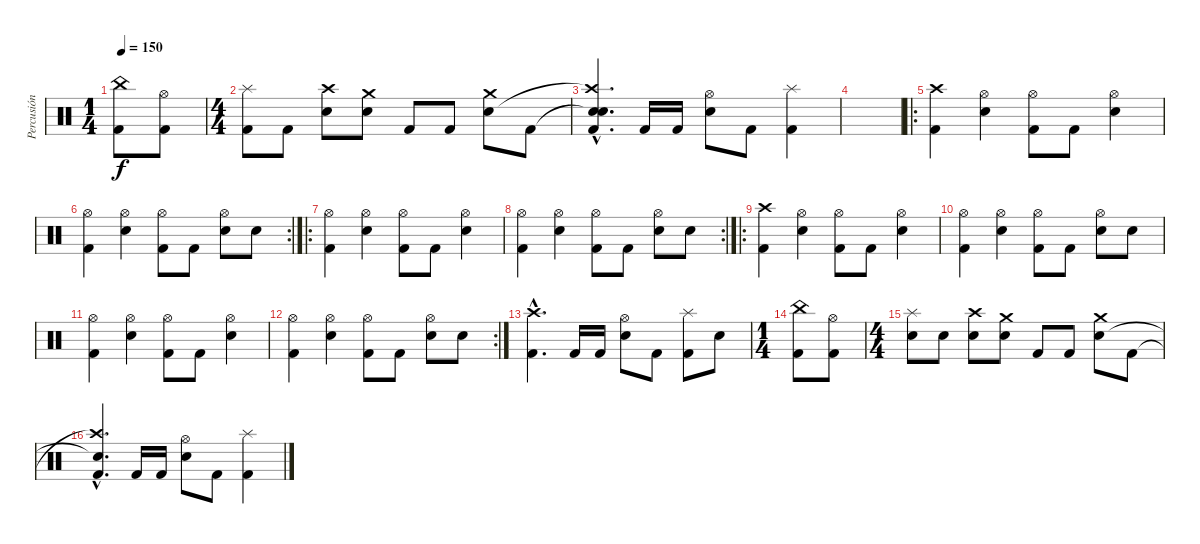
\track ("Percusión" "Percusión") {instrument percussion}
\staff {score}
\articulation defaults
\ts (1 4)
\tempo 150
\clef neutral
\ks c
("China (hit)" "Kick (hit) 2").8{dy f} ("Hi-Hat (open)" "Kick (hit) 2").8 |
\ts (4 4)
("Splash (hit)" "Kick (hit) 2").8 "Kick (hit) 2".8 ("Crash high (hit)" "Electric Snare (hit)").8 ("Crash medium (hit)" "Electric Snare (hit)").8 "Kick (hit) 2".8 "Kick (hit) 2".8 ("Crash medium (hit)" "Electric Snare (hit)").8 "Kick (hit) 2".8 |
("Snare (hit)"{hac t} "Crash high (hit)"{hac t} "Snare (hit)"{hac t} "Kick (hit) 2"{hac t}).4{d} "Kick (hit) 2".16 "Kick (hit) 2".16 ("Hi-Hat (open)" "Electric Snare (hit)").8 "Kick (hit) 2".8 ("Splash (hit)" "Kick (hit) 2").4 |
|
\ro
("Crash high (hit)" "Kick (hit) 2").4 ("Hi-Hat (open)" "Electric Snare (hit)").4 ("Hi-Hat (open)" "Kick (hit) 2").8 "Kick (hit) 2".8 ("Hi-Hat (open)" "Electric Snare (hit)").4 |
\rc 2
("Hi-Hat (open)" "Kick (hit) 2").4 ("Hi-Hat (open)" "Electric Snare (hit)").4 ("Hi-Hat (open)" "Kick (hit) 2").8 "Kick (hit) 2".8 ("Hi-Hat (open)" "Electric Snare (hit)").8 "Electric Snare (hit)".8 |
\ro
("Hi-Hat (open)" "Kick (hit) 2").4 ("Hi-Hat (open)" "Electric Snare (hit)").4 ("Hi-Hat (open)" "Kick (hit) 2").8 "Kick (hit) 2".8 ("Hi-Hat (open)" "Electric Snare (hit)").4 |
\rc 2
("Hi-Hat (open)" "Kick (hit) 2").4 ("Hi-Hat (open)" "Electric Snare (hit)").4 ("Hi-Hat (open)" "Kick (hit) 2").8 "Kick (hit) 2".8 ("Hi-Hat (open)" "Electric Snare (hit)").8 "Electric Snare (hit)".8 |
\ro
("Crash high (hit)" "Kick (hit) 2").4 ("Hi-Hat (open)" "Electric Snare (hit)").4 ("Hi-Hat (open)" "Kick (hit) 2").8 "Kick (hit) 2".8 ("Hi-Hat (open)" "Electric Snare (hit)").4 |
("Hi-Hat (open)" "Kick (hit) 2").4 ("Hi-Hat (open)" "Electric Snare (hit)").4 ("Hi-Hat (open)" "Kick (hit) 2").8 "Kick (hit) 2".8 ("Hi-Hat (open)" "Electric Snare (hit)").8 "Electric Snare (hit)".8 |
("Hi-Hat (open)" "Kick (hit) 2").4 ("Hi-Hat (open)" "Electric Snare (hit)").4 ("Hi-Hat (open)" "Kick (hit) 2").8 "Kick (hit) 2".8 ("Hi-Hat (open)" "Electric Snare (hit)").4 |
\rc 2
("Hi-Hat (open)" "Kick (hit) 2").4 ("Hi-Hat (open)" "Electric Snare (hit)").4 ("Hi-Hat (open)" "Kick (hit) 2").8 "Kick (hit) 2".8 ("Hi-Hat (open)" "Electric Snare (hit)").8 "Electric Snare (hit)".8 |
("Crash high (hit)"{hac} "Kick (hit) 2"{hac}).4{d} "Kick (hit) 2".16 "Kick (hit) 2".16 ("Hi-Hat (open)" "Electric Snare (hit)").8 "Kick (hit) 2".8 ("Splash (hit)" "Kick (hit) 2").8 "Electric Snare (hit)".8 |
\ts (1 4)
("China (hit)" "Kick (hit) 2").8 ("Hi-Hat (open)" "Kick (hit) 2").8 |
\ts (4 4)
("Splash (hit)" "Electric Snare (hit)").8 "Electric Snare (hit)".8 ("Crash high (hit)" "Electric Snare (hit)").8 ("Crash medium (hit)" "Electric Snare (hit)").8 "Kick (hit) 2".8 "Kick (hit) 2".8 ("Crash medium (hit)" "Electric Snare (hit)").8 "Kick (hit) 2".8 |
("Crash high (hit)"{hac t} "Snare (hit)"{hac t} "Kick (hit) 2"{hac}).4{d} "Kick (hit) 2".16 "Kick (hit) 2".16 ("Hi-Hat (open)" "Electric Snare (hit)").8 "Kick (hit) 2".8 ("Splash (hit)" "Kick (hit) 2").4
